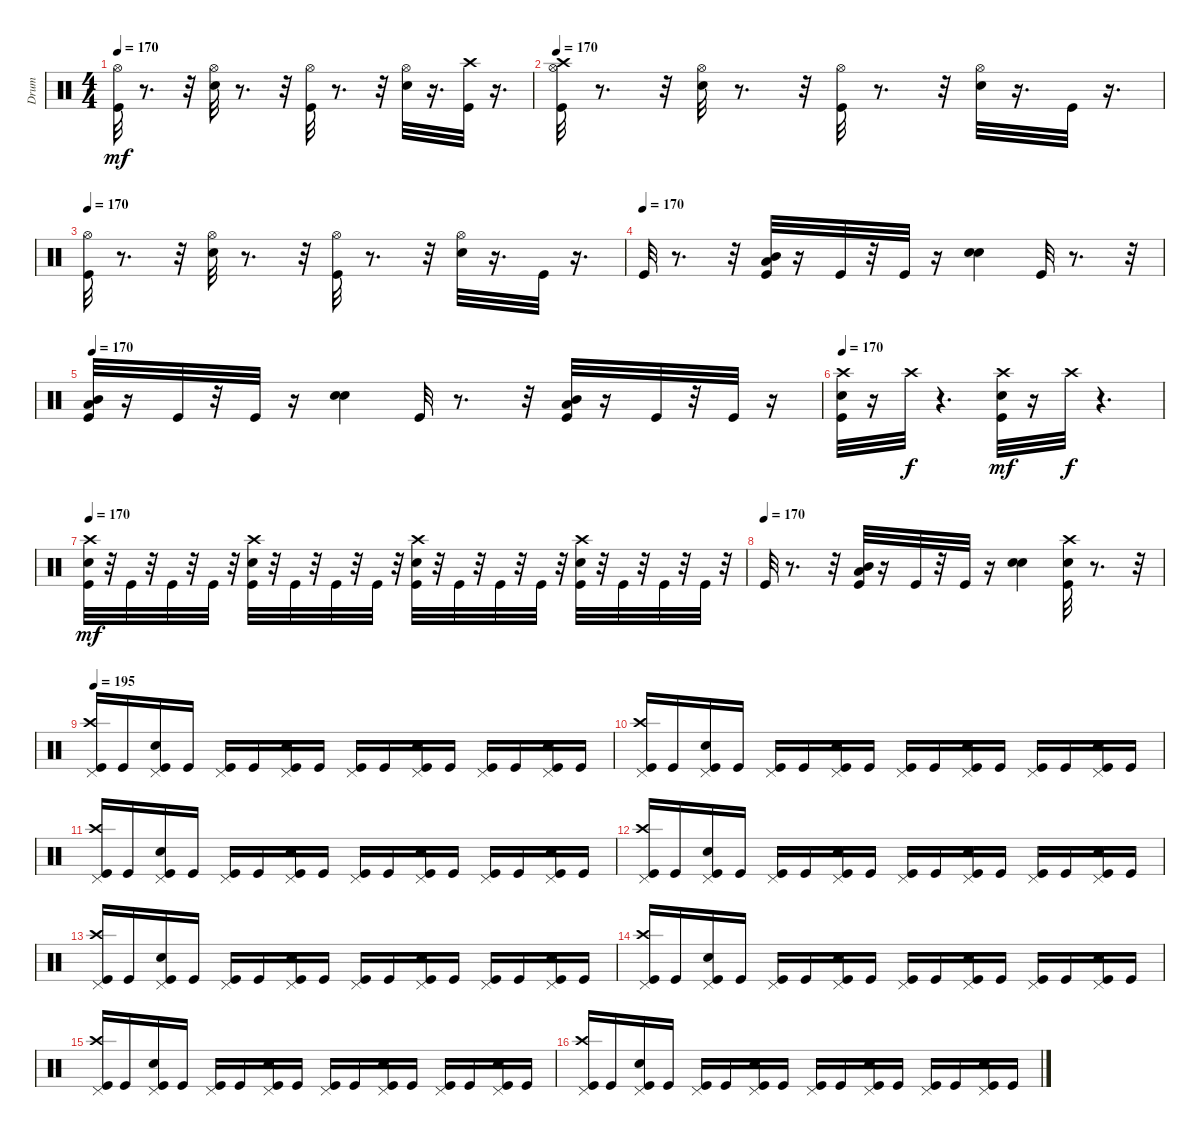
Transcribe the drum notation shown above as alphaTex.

\track ("Drum" "Drum") {instrument percussion}
\staff {score}
\articulation defaults
\ts (4 4)
\tempo 170
\clef neutral
\ks c
("Hi-Hat (open)" "Kick (hit)").32{dy mf} r.8{d} r.32 ("Hi-Hat (open)" "Snare (hit) 2").32 r.8{d} r.32 ("Hi-Hat (open)" "Kick (hit)").32 r.8{d} r.32 ("Hi-Hat (open)" "Snare (hit) 2").32 r.16{d} ("Crash high (hit)" "Kick (hit)").32 r.16{d} |
\tempo 170
("Crash high (hit)" "Hi-Hat (open)" "Kick (hit)").32 r.8{d} r.32 ("Hi-Hat (open)" "Snare (hit) 2").32 r.8{d} r.32 ("Hi-Hat (open)" "Kick (hit)").32 r.8{d} r.32 ("Hi-Hat (open)" "Snare (hit) 2").32 r.16{d} "Kick (hit)".32 r.16{d} |
\tempo 170
("Hi-Hat (open)" "Kick (hit)").32 r.8{d} r.32 ("Hi-Hat (open)" "Snare (hit) 2").32 r.8{d} r.32 ("Hi-Hat (open)" "Kick (hit)").32 r.8{d} r.32 ("Hi-Hat (open)" "Snare (hit) 2").32 r.16{d} "Kick (hit)".32 r.16{d} |
\tempo (170)
"Kick (hit)".32 r.8{d} r.32 ("Kick (hit)" "Low Tom (hit)" "Mid Tom (hit)").32 r.16 "Kick (hit)".32 r.32 "Kick (hit)".32 r.16 ("Snare (hit) 2" "Snare (hit) 2").4 "Kick (hit)".32 r.8{d} r.32 |
\tempo 170
("Kick (hit)" "Low Tom (hit)" "Mid Tom (hit)").32 r.16 "Kick (hit)".32 r.32 "Kick (hit)".32 r.16 ("Snare (hit) 2" "Snare (hit) 2").4 "Kick (hit)".32 r.8{d} r.32 ("Kick (hit)" "Low Tom (hit)" "Mid Tom (hit)").32 r.16 "Kick (hit)".32 r.32 "Kick (hit)".32 r.16 |
\tempo 170
("Kick (hit)" "Crash high (hit)" "Snare (hit) 2").32 r.16 "Crash high (hit)".32{dy f} r.4{d} ("Kick (hit)" "Snare (hit) 2" "Crash high (hit)").32{dy mf} r.16 "Crash high (hit)".32{dy f} r.4{d} |
\tempo 170
("Crash high (hit)" "Snare (hit) 2" "Kick (hit)").32{dy mf} r.32 "Kick (hit)".32 r.32 "Kick (hit)".32 r.32 "Kick (hit)".32 r.32 ("Crash high (hit)" "Snare (hit) 2" "Kick (hit)").32 r.32 "Kick (hit)".32 r.32 "Kick (hit)".32 r.32 "Kick (hit)".32 r.32 ("Crash high (hit)" "Snare (hit) 2" "Kick (hit)").32 r.32 "Kick (hit)".32 r.32 "Kick (hit)".32 r.32 "Kick (hit)".32 r.32 ("Crash high (hit)" "Snare (hit) 2" "Kick (hit)").32 r.32 "Kick (hit)".32 r.32 "Kick (hit)".32 r.32 "Kick (hit)".32 r.32 |
\tempo (170)
"Kick (hit)".32 r.8{d} r.32 ("Kick (hit)" "Low Tom (hit)" "Mid Tom (hit)").32 r.16 "Kick (hit)".32 r.32 "Kick (hit)".32 r.16 ("Snare (hit) 2" "Snare (hit) 2").4 ("Crash high (hit)" "Snare (hit) 2" "Kick (hit)").32 r.8{d} r.32 |
\tempo 195
("Crash high (hit)" "Pedal Hi-Hat (hit)" "Kick (hit)").16 "Kick (hit)".16 ("Pedal Hi-Hat (hit)" "Snare (hit) 2" "Kick (hit)").16 "Kick (hit)".16 ("Pedal Hi-Hat (hit)" "Kick (hit)").16 "Kick (hit)".16 ("Pedal Hi-Hat (hit)" "Snare (hit) 2" "Kick (hit)").16 "Kick (hit)".16 ("Pedal Hi-Hat (hit)" "Kick (hit)").16 "Kick (hit)".16 ("Pedal Hi-Hat (hit)" "Snare (hit) 2" "Kick (hit)").16 "Kick (hit)".16 ("Pedal Hi-Hat (hit)" "Kick (hit)").16 "Kick (hit)".16 ("Pedal Hi-Hat (hit)" "Snare (hit) 2" "Kick (hit)").16 "Kick (hit)".16 |
("Crash high (hit)" "Pedal Hi-Hat (hit)" "Kick (hit)").16 "Kick (hit)".16 ("Pedal Hi-Hat (hit)" "Snare (hit) 2" "Kick (hit)").16 "Kick (hit)".16 ("Pedal Hi-Hat (hit)" "Kick (hit)").16 "Kick (hit)".16 ("Pedal Hi-Hat (hit)" "Snare (hit) 2" "Kick (hit)").16 "Kick (hit)".16 ("Pedal Hi-Hat (hit)" "Kick (hit)").16 "Kick (hit)".16 ("Pedal Hi-Hat (hit)" "Snare (hit) 2" "Kick (hit)").16 "Kick (hit)".16 ("Pedal Hi-Hat (hit)" "Kick (hit)").16 "Kick (hit)".16 ("Pedal Hi-Hat (hit)" "Snare (hit) 2" "Kick (hit)").16 "Kick (hit)".16 |
("Crash high (hit)" "Pedal Hi-Hat (hit)" "Kick (hit)").16 "Kick (hit)".16 ("Pedal Hi-Hat (hit)" "Snare (hit) 2" "Kick (hit)").16 "Kick (hit)".16 ("Pedal Hi-Hat (hit)" "Kick (hit)").16 "Kick (hit)".16 ("Pedal Hi-Hat (hit)" "Snare (hit) 2" "Kick (hit)").16 "Kick (hit)".16 ("Pedal Hi-Hat (hit)" "Kick (hit)").16 "Kick (hit)".16 ("Pedal Hi-Hat (hit)" "Snare (hit) 2" "Kick (hit)").16 "Kick (hit)".16 ("Pedal Hi-Hat (hit)" "Kick (hit)").16 "Kick (hit)".16 ("Pedal Hi-Hat (hit)" "Snare (hit) 2" "Kick (hit)").16 "Kick (hit)".16 |
("Crash high (hit)" "Pedal Hi-Hat (hit)" "Kick (hit)").16 "Kick (hit)".16 ("Pedal Hi-Hat (hit)" "Snare (hit) 2" "Kick (hit)").16 "Kick (hit)".16 ("Pedal Hi-Hat (hit)" "Kick (hit)").16 "Kick (hit)".16 ("Pedal Hi-Hat (hit)" "Snare (hit) 2" "Kick (hit)").16 "Kick (hit)".16 ("Pedal Hi-Hat (hit)" "Kick (hit)").16 "Kick (hit)".16 ("Pedal Hi-Hat (hit)" "Snare (hit) 2" "Kick (hit)").16 "Kick (hit)".16 ("Pedal Hi-Hat (hit)" "Kick (hit)").16 "Kick (hit)".16 ("Pedal Hi-Hat (hit)" "Snare (hit) 2" "Kick (hit)").16 "Kick (hit)".16 |
("Crash high (hit)" "Pedal Hi-Hat (hit)" "Kick (hit)").16 "Kick (hit)".16 ("Pedal Hi-Hat (hit)" "Snare (hit) 2" "Kick (hit)").16 "Kick (hit)".16 ("Pedal Hi-Hat (hit)" "Kick (hit)").16 "Kick (hit)".16 ("Pedal Hi-Hat (hit)" "Snare (hit) 2" "Kick (hit)").16 "Kick (hit)".16 ("Pedal Hi-Hat (hit)" "Kick (hit)").16 "Kick (hit)".16 ("Pedal Hi-Hat (hit)" "Snare (hit) 2" "Kick (hit)").16 "Kick (hit)".16 ("Pedal Hi-Hat (hit)" "Kick (hit)").16 "Kick (hit)".16 ("Pedal Hi-Hat (hit)" "Snare (hit) 2" "Kick (hit)").16 "Kick (hit)".16 |
("Crash high (hit)" "Pedal Hi-Hat (hit)" "Kick (hit)").16 "Kick (hit)".16 ("Pedal Hi-Hat (hit)" "Snare (hit) 2" "Kick (hit)").16 "Kick (hit)".16 ("Pedal Hi-Hat (hit)" "Kick (hit)").16 "Kick (hit)".16 ("Pedal Hi-Hat (hit)" "Snare (hit) 2" "Kick (hit)").16 "Kick (hit)".16 ("Pedal Hi-Hat (hit)" "Kick (hit)").16 "Kick (hit)".16 ("Pedal Hi-Hat (hit)" "Snare (hit) 2" "Kick (hit)").16 "Kick (hit)".16 ("Pedal Hi-Hat (hit)" "Kick (hit)").16 "Kick (hit)".16 ("Pedal Hi-Hat (hit)" "Snare (hit) 2" "Kick (hit)").16 "Kick (hit)".16 |
("Crash high (hit)" "Pedal Hi-Hat (hit)" "Kick (hit)").16 "Kick (hit)".16 ("Pedal Hi-Hat (hit)" "Snare (hit) 2" "Kick (hit)").16 "Kick (hit)".16 ("Pedal Hi-Hat (hit)" "Kick (hit)").16 "Kick (hit)".16 ("Pedal Hi-Hat (hit)" "Snare (hit) 2" "Kick (hit)").16 "Kick (hit)".16 ("Pedal Hi-Hat (hit)" "Kick (hit)").16 "Kick (hit)".16 ("Pedal Hi-Hat (hit)" "Snare (hit) 2" "Kick (hit)").16 "Kick (hit)".16 ("Pedal Hi-Hat (hit)" "Kick (hit)").16 "Kick (hit)".16 ("Pedal Hi-Hat (hit)" "Snare (hit) 2" "Kick (hit)").16 "Kick (hit)".16 |
("Crash high (hit)" "Pedal Hi-Hat (hit)" "Kick (hit)").16 "Kick (hit)".16 ("Pedal Hi-Hat (hit)" "Snare (hit) 2" "Kick (hit)").16 "Kick (hit)".16 ("Pedal Hi-Hat (hit)" "Kick (hit)").16 "Kick (hit)".16 ("Pedal Hi-Hat (hit)" "Snare (hit) 2" "Kick (hit)").16 "Kick (hit)".16 ("Pedal Hi-Hat (hit)" "Kick (hit)").16 "Kick (hit)".16 ("Pedal Hi-Hat (hit)" "Snare (hit) 2" "Kick (hit)").16 "Kick (hit)".16 ("Pedal Hi-Hat (hit)" "Kick (hit)").16 "Kick (hit)".16 ("Pedal Hi-Hat (hit)" "Snare (hit) 2" "Kick (hit)").16 "Kick (hit)".16
